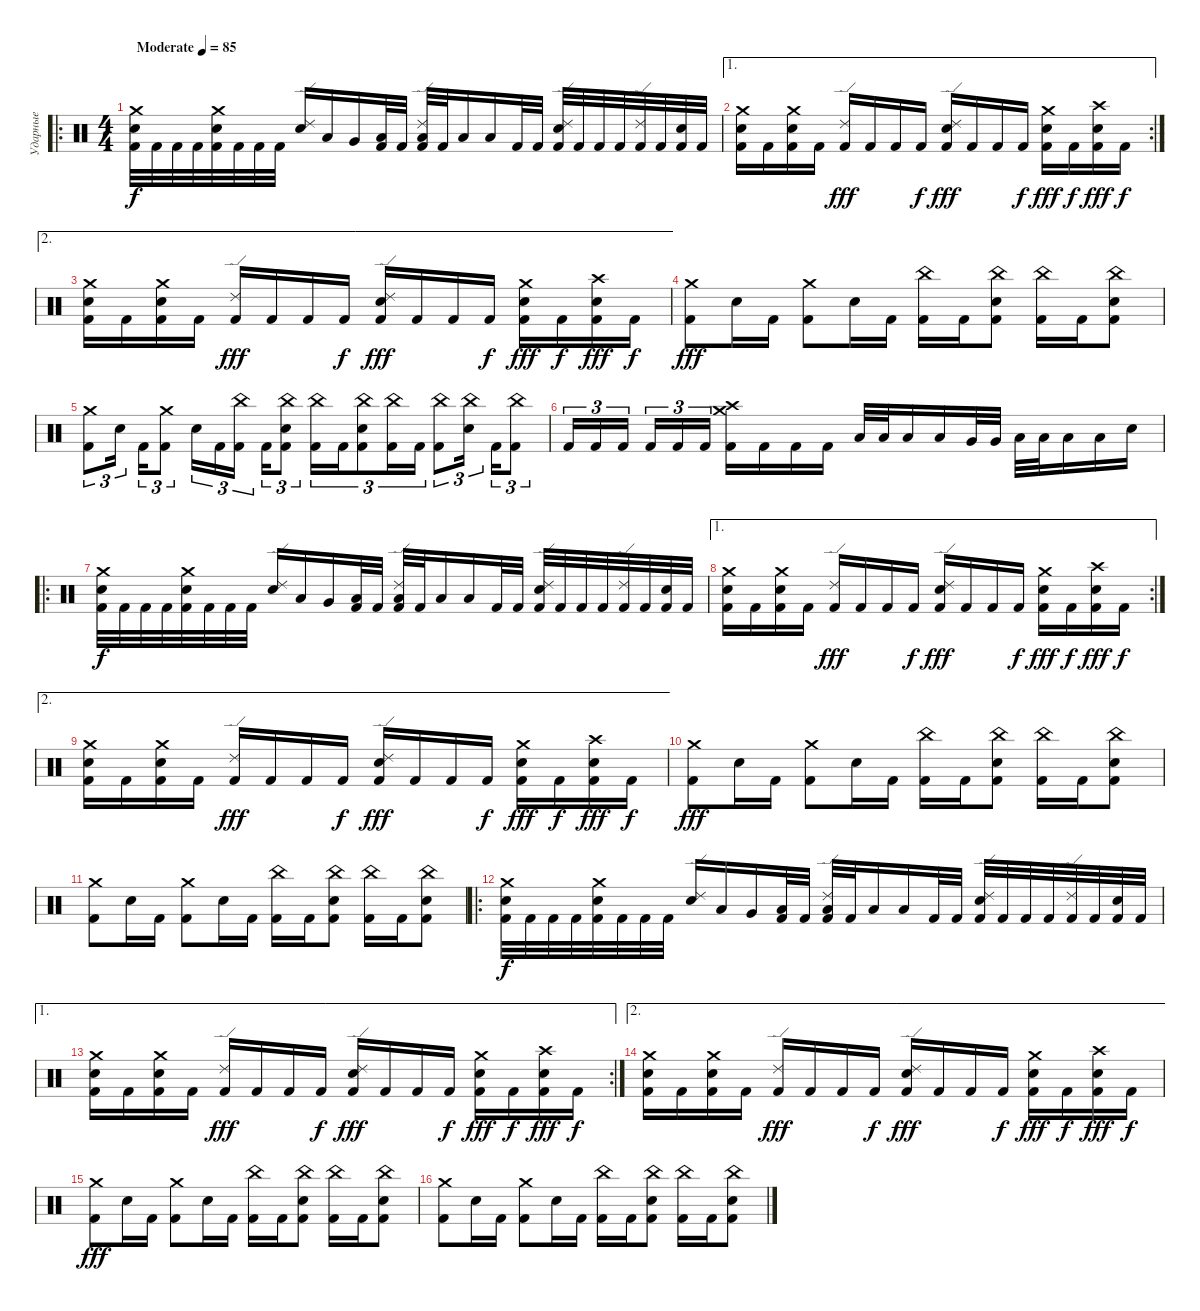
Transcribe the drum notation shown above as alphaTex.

\track ("Ударные" "Ударные") {instrument percussion}
\staff {score}
\articulation defaults
\ro
\ts (4 4)
\tempo (85 "Moderate")
\clef neutral
\ks c
("Crash medium (hit)" "Electric Snare (hit)" "Kick (hit) 2").32{dy f} "Kick (hit) 2".32 "Kick (hit) 2".32 "Kick (hit) 2".32 ("Crash medium (hit)" "Electric Snare (hit)" "Kick (hit) 2").32 "Kick (hit) 2".32 "Kick (hit) 2".32 "Kick (hit) 2".32 ("Ride (edge) 2" "Electric Snare (hit)").16 "Low Tom (hit)".16 "Very Low Tom (hit)".16 ("Low Floor Tom (hit)" "Kick (hit) 2").32 "Kick (hit) 2".32 ("Ride (edge) 2" "Low Floor Tom (hit)" "Kick (hit) 2").32 "Kick (hit) 2".32 "Low Floor Tom (hit)".16 "Low Floor Tom (hit)".16 "Kick (hit) 2".32 "Kick (hit) 2".32 ("Ride (edge) 2" "Electric Snare (hit)" "Kick (hit) 2").32 "Kick (hit) 2".32 "Kick (hit) 2".32 "Kick (hit) 2".32 ("Ride (edge) 2" "Kick (hit) 2").32 "Kick (hit) 2".32 ("Electric Snare (hit)" "Kick (hit) 2").32 "Kick (hit) 2".32 |
\ae 1
\rc 2
("Crash medium (hit)" "Electric Snare (hit)" "Kick (hit) 2").16 "Kick (hit) 2".16 ("Crash medium (hit)" "Electric Snare (hit)" "Kick (hit) 2").16 "Kick (hit) 2".16 ("Ride (edge) 2" "Kick (hit) 2").16{dy fff} "Kick (hit) 2".16 "Kick (hit) 2".16 "Kick (hit) 2".16{dy f} ("Ride (edge) 2" "Electric Snare (hit)" "Kick (hit) 2").16{dy fff} "Kick (hit) 2".16 "Kick (hit) 2".16 "Kick (hit) 2".16{dy f} ("Crash medium (hit)" "Electric Snare (hit)" "Kick (hit) 2").16{dy fff} "Kick (hit) 2".16{dy f} ("Crash high (hit)" "Electric Snare (hit)" "Kick (hit) 2").16{dy fff} "Kick (hit) 2".16{dy f} |
\ae 2
("Crash medium (hit)" "Electric Snare (hit)" "Kick (hit) 2").16 "Kick (hit) 2".16 ("Crash medium (hit)" "Electric Snare (hit)" "Kick (hit) 2").16 "Kick (hit) 2".16 ("Ride (edge) 2" "Kick (hit) 2").16{dy fff} "Kick (hit) 2".16 "Kick (hit) 2".16 "Kick (hit) 2".16{dy f} ("Ride (edge) 2" "Electric Snare (hit)" "Kick (hit) 2").16{dy fff} "Kick (hit) 2".16 "Kick (hit) 2".16 "Kick (hit) 2".16{dy f} ("Crash medium (hit)" "Electric Snare (hit)" "Kick (hit) 2").16{dy fff} "Kick (hit) 2".16{dy f} ("Crash high (hit)" "Electric Snare (hit)" "Kick (hit) 2").16{dy fff} "Kick (hit) 2".16{dy f} |
("Crash medium (hit)" "Kick (hit) 2").8{dy fff} "Electric Snare (hit)".16 "Kick (hit) 2".16 ("Crash medium (hit)" "Kick (hit) 2").8 "Electric Snare (hit)".16 "Kick (hit) 2".16 ("China (hit)" "Kick (hit) 2").16 "Kick (hit) 2".16 ("China (hit)" "Electric Snare (hit)" "Kick (hit) 2").8 ("China (hit)" "Kick (hit) 2").16 "Kick (hit) 2".16 ("China (hit)" "Electric Snare (hit)" "Kick (hit) 2").8 |
("Crash medium (hit)" "Kick (hit) 2").8{tu (3 2)} "Electric Snare (hit)".16{tu (3 2) beam splitsecondary} "Kick (hit) 2".16{tu (3 2)} ("Crash medium (hit)" "Kick (hit) 2").8{tu (3 2)} "Electric Snare (hit)".16{tu (3 2)} "Kick (hit) 2".16{tu (3 2)} ("China (hit)" "Kick (hit) 2").16{tu (3 2) beam splitsecondary} "Kick (hit) 2".16{tu (3 2)} ("China (hit)" "Electric Snare (hit)" "Kick (hit) 2").8{tu (3 2)} ("China (hit)" "Kick (hit) 2").16{tu (3 2)} "Kick (hit) 2".16{tu (3 2)} ("China (hit)" "Electric Snare (hit)" "Kick (hit) 2").8{tu (3 2)} ("China (hit)" "Kick (hit) 2").16{tu (3 2)} "Kick (hit) 2".16{tu (3 2)} ("China (hit)" "Kick (hit) 2").8{tu (3 2)} ("China (hit)" "Electric Snare (hit)").16{tu (3 2) beam splitsecondary} "Kick (hit) 2".16{tu (3 2)} ("China (hit)" "Kick (hit) 2").8{tu (3 2)} |
"Kick (hit) 2".16{tu (3 2)} "Kick (hit) 2".16{tu (3 2)} "Kick (hit) 2".16{tu (3 2) beam splitsecondary} "Kick (hit) 2".16{tu (3 2)} "Kick (hit) 2".16{tu (3 2)} "Kick (hit) 2".16{tu (3 2)} ("Crash medium (hit)" "Crash high (hit)" "Kick (hit) 2").16 "Kick (hit) 2".16 "Kick (hit) 2".16 "Kick (hit) 2".16 "Low Tom (hit)".32 "Low Tom (hit)".32 "Low Tom (hit)".16 "Low Tom (hit)".16 "Very Low Tom (hit)".32 "Very Low Tom (hit)".32 "Low Floor Tom (hit)".32 "Low Floor Tom (hit)".32 "Low Floor Tom (hit)".16 "Low Floor Tom (hit)".16 "Electric Snare (hit)".16 |
\ro
("Crash medium (hit)" "Electric Snare (hit)" "Kick (hit) 2").32{dy f} "Kick (hit) 2".32 "Kick (hit) 2".32 "Kick (hit) 2".32 ("Crash medium (hit)" "Electric Snare (hit)" "Kick (hit) 2").32 "Kick (hit) 2".32 "Kick (hit) 2".32 "Kick (hit) 2".32 ("Ride (edge) 2" "Electric Snare (hit)").16 "Low Tom (hit)".16 "Very Low Tom (hit)".16 ("Low Floor Tom (hit)" "Kick (hit) 2").32 "Kick (hit) 2".32 ("Ride (edge) 2" "Low Floor Tom (hit)" "Kick (hit) 2").32 "Kick (hit) 2".32 "Low Floor Tom (hit)".16 "Low Floor Tom (hit)".16 "Kick (hit) 2".32 "Kick (hit) 2".32 ("Ride (edge) 2" "Electric Snare (hit)" "Kick (hit) 2").32 "Kick (hit) 2".32 "Kick (hit) 2".32 "Kick (hit) 2".32 ("Ride (edge) 2" "Kick (hit) 2").32 "Kick (hit) 2".32 ("Electric Snare (hit)" "Kick (hit) 2").32 "Kick (hit) 2".32 |
\ae 1
\rc 2
("Crash medium (hit)" "Electric Snare (hit)" "Kick (hit) 2").16 "Kick (hit) 2".16 ("Crash medium (hit)" "Electric Snare (hit)" "Kick (hit) 2").16 "Kick (hit) 2".16 ("Ride (edge) 2" "Kick (hit) 2").16{dy fff} "Kick (hit) 2".16 "Kick (hit) 2".16 "Kick (hit) 2".16{dy f} ("Ride (edge) 2" "Electric Snare (hit)" "Kick (hit) 2").16{dy fff} "Kick (hit) 2".16 "Kick (hit) 2".16 "Kick (hit) 2".16{dy f} ("Crash medium (hit)" "Electric Snare (hit)" "Kick (hit) 2").16{dy fff} "Kick (hit) 2".16{dy f} ("Crash high (hit)" "Electric Snare (hit)" "Kick (hit) 2").16{dy fff} "Kick (hit) 2".16{dy f} |
\ae 2
("Crash medium (hit)" "Electric Snare (hit)" "Kick (hit) 2").16 "Kick (hit) 2".16 ("Crash medium (hit)" "Electric Snare (hit)" "Kick (hit) 2").16 "Kick (hit) 2".16 ("Ride (edge) 2" "Kick (hit) 2").16{dy fff} "Kick (hit) 2".16 "Kick (hit) 2".16 "Kick (hit) 2".16{dy f} ("Ride (edge) 2" "Electric Snare (hit)" "Kick (hit) 2").16{dy fff} "Kick (hit) 2".16 "Kick (hit) 2".16 "Kick (hit) 2".16{dy f} ("Crash medium (hit)" "Electric Snare (hit)" "Kick (hit) 2").16{dy fff} "Kick (hit) 2".16{dy f} ("Crash high (hit)" "Electric Snare (hit)" "Kick (hit) 2").16{dy fff} "Kick (hit) 2".16{dy f} |
("Crash medium (hit)" "Kick (hit) 2").8{dy fff} "Electric Snare (hit)".16 "Kick (hit) 2".16 ("Crash medium (hit)" "Kick (hit) 2").8 "Electric Snare (hit)".16 "Kick (hit) 2".16 ("China (hit)" "Kick (hit) 2").16 "Kick (hit) 2".16 ("China (hit)" "Electric Snare (hit)" "Kick (hit) 2").8 ("China (hit)" "Kick (hit) 2").16 "Kick (hit) 2".16 ("China (hit)" "Electric Snare (hit)" "Kick (hit) 2").8 |
("Crash medium (hit)" "Kick (hit) 2").8 "Electric Snare (hit)".16 "Kick (hit) 2".16 ("Crash medium (hit)" "Kick (hit) 2").8 "Electric Snare (hit)".16 "Kick (hit) 2".16 ("China (hit)" "Kick (hit) 2").16 "Kick (hit) 2".16 ("China (hit)" "Electric Snare (hit)" "Kick (hit) 2").8 ("China (hit)" "Kick (hit) 2").16 "Kick (hit) 2".16 ("China (hit)" "Electric Snare (hit)" "Kick (hit) 2").8 |
\ro
("Crash medium (hit)" "Electric Snare (hit)" "Kick (hit) 2").32{dy f} "Kick (hit) 2".32 "Kick (hit) 2".32 "Kick (hit) 2".32 ("Crash medium (hit)" "Electric Snare (hit)" "Kick (hit) 2").32 "Kick (hit) 2".32 "Kick (hit) 2".32 "Kick (hit) 2".32 ("Ride (edge) 2" "Electric Snare (hit)").16 "Low Tom (hit)".16 "Very Low Tom (hit)".16 ("Low Floor Tom (hit)" "Kick (hit) 2").32 "Kick (hit) 2".32 ("Ride (edge) 2" "Low Floor Tom (hit)" "Kick (hit) 2").32 "Kick (hit) 2".32 "Low Floor Tom (hit)".16 "Low Floor Tom (hit)".16 "Kick (hit) 2".32 "Kick (hit) 2".32 ("Ride (edge) 2" "Electric Snare (hit)" "Kick (hit) 2").32 "Kick (hit) 2".32 "Kick (hit) 2".32 "Kick (hit) 2".32 ("Ride (edge) 2" "Kick (hit) 2").32 "Kick (hit) 2".32 ("Electric Snare (hit)" "Kick (hit) 2").32 "Kick (hit) 2".32 |
\ae 1
\rc 2
("Crash medium (hit)" "Electric Snare (hit)" "Kick (hit) 2").16 "Kick (hit) 2".16 ("Crash medium (hit)" "Electric Snare (hit)" "Kick (hit) 2").16 "Kick (hit) 2".16 ("Ride (edge) 2" "Kick (hit) 2").16{dy fff} "Kick (hit) 2".16 "Kick (hit) 2".16 "Kick (hit) 2".16{dy f} ("Ride (edge) 2" "Electric Snare (hit)" "Kick (hit) 2").16{dy fff} "Kick (hit) 2".16 "Kick (hit) 2".16 "Kick (hit) 2".16{dy f} ("Crash medium (hit)" "Electric Snare (hit)" "Kick (hit) 2").16{dy fff} "Kick (hit) 2".16{dy f} ("Crash high (hit)" "Electric Snare (hit)" "Kick (hit) 2").16{dy fff} "Kick (hit) 2".16{dy f} |
\ae 2
("Crash medium (hit)" "Electric Snare (hit)" "Kick (hit) 2").16 "Kick (hit) 2".16 ("Crash medium (hit)" "Electric Snare (hit)" "Kick (hit) 2").16 "Kick (hit) 2".16 ("Ride (edge) 2" "Kick (hit) 2").16{dy fff} "Kick (hit) 2".16 "Kick (hit) 2".16 "Kick (hit) 2".16{dy f} ("Ride (edge) 2" "Electric Snare (hit)" "Kick (hit) 2").16{dy fff} "Kick (hit) 2".16 "Kick (hit) 2".16 "Kick (hit) 2".16{dy f} ("Crash medium (hit)" "Electric Snare (hit)" "Kick (hit) 2").16{dy fff} "Kick (hit) 2".16{dy f} ("Crash high (hit)" "Electric Snare (hit)" "Kick (hit) 2").16{dy fff} "Kick (hit) 2".16{dy f} |
("Crash medium (hit)" "Kick (hit) 2").8{dy fff} "Electric Snare (hit)".16 "Kick (hit) 2".16 ("Crash medium (hit)" "Kick (hit) 2").8 "Electric Snare (hit)".16 "Kick (hit) 2".16 ("China (hit)" "Kick (hit) 2").16 "Kick (hit) 2".16 ("China (hit)" "Electric Snare (hit)" "Kick (hit) 2").8 ("China (hit)" "Kick (hit) 2").16 "Kick (hit) 2".16 ("China (hit)" "Electric Snare (hit)" "Kick (hit) 2").8 |
("Crash medium (hit)" "Kick (hit) 2").8 "Electric Snare (hit)".16 "Kick (hit) 2".16 ("Crash medium (hit)" "Kick (hit) 2").8 "Electric Snare (hit)".16 "Kick (hit) 2".16 ("China (hit)" "Kick (hit) 2").16 "Kick (hit) 2".16 ("China (hit)" "Electric Snare (hit)" "Kick (hit) 2").8 ("China (hit)" "Kick (hit) 2").16 "Kick (hit) 2".16 ("China (hit)" "Electric Snare (hit)" "Kick (hit) 2").8
